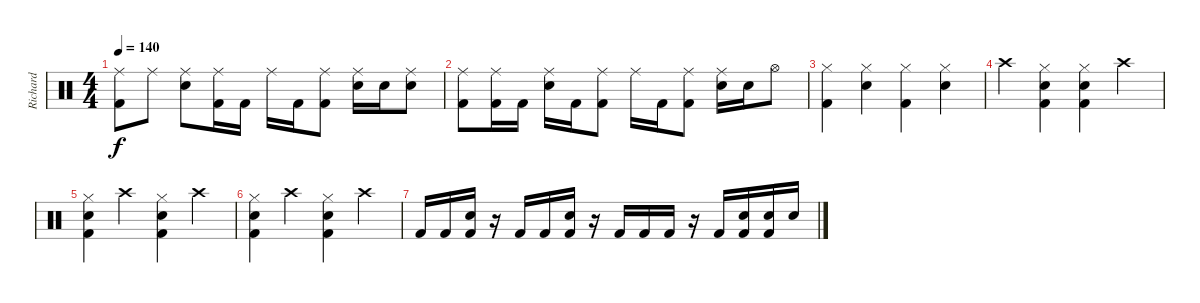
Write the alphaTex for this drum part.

\track ("Richard" "Richard") {instrument percussion}
\staff {score}
\articulation defaults
\ts (4 4)
\tempo 140
\clef neutral
\ks c
("Ride (middle)" "Kick (hit) 2").8{dy f} "Ride (middle)".8 ("Ride (middle)" "Snare (hit) 2").8 ("Ride (middle)" "Kick (hit) 2").16 "Kick (hit) 2".16 "Ride (middle)".16 "Kick (hit) 2".16 ("Ride (middle)" "Kick (hit) 2").8 ("Ride (middle)" "Snare (hit) 2").16 "Snare (hit) 2".16 ("Ride (middle)" "Snare (hit) 2").8 |
("Ride (middle)" "Kick (hit) 2").8 ("Ride (middle)" "Kick (hit) 2").16 "Kick (hit) 2".16 ("Ride (middle)" "Snare (hit) 2").16 "Kick (hit) 2".16 ("Ride (middle)" "Kick (hit) 2").8 "Ride (middle)".16 "Kick (hit) 2".16 ("Ride (middle)" "Kick (hit) 2").8 ("Ride (middle)" "Snare (hit) 2").16 "Snare (hit) 2".16 "Hi-Hat (open)".8 |
("Hi-Hat (closed)" "Kick (hit) 2").4 ("Hi-Hat (closed)" "Snare (hit) 2").4 ("Hi-Hat (closed)" "Kick (hit) 2").4 ("Hi-Hat (closed)" "Snare (hit) 2").4 |
"Crash high (hit)".4 ("Hi-Hat (closed)" "Snare (hit) 2" "Kick (hit) 2").4 ("Hi-Hat (closed)" "Snare (hit) 2" "Kick (hit) 2").4 "Crash high (hit)".4 |
("Hi-Hat (closed)" "Snare (hit) 2" "Kick (hit) 2").4 "Crash high (hit)".4 ("Hi-Hat (closed)" "Snare (hit) 2" "Kick (hit) 2").4 "Crash high (hit)".4 |
("Hi-Hat (closed)" "Snare (hit) 2" "Kick (hit) 2").4 "Crash high (hit)".4 ("Hi-Hat (closed)" "Snare (hit) 2" "Kick (hit) 2").4 "Crash high (hit)".4 |
"Kick (hit) 2".16 "Kick (hit) 2".16 ("Snare (hit) 2" "Kick (hit) 2").16 r.16 "Kick (hit) 2".16 "Kick (hit) 2".16 ("Snare (hit) 2" "Kick (hit) 2").16 r.16 "Kick (hit) 2".16 "Kick (hit) 2".16 "Kick (hit) 2".16 r.16 "Kick (hit) 2".16 ("Snare (hit) 2" "Kick (hit) 2").16 ("Snare (hit) 2" "Kick (hit) 2").16 "Snare (hit) 2".16
